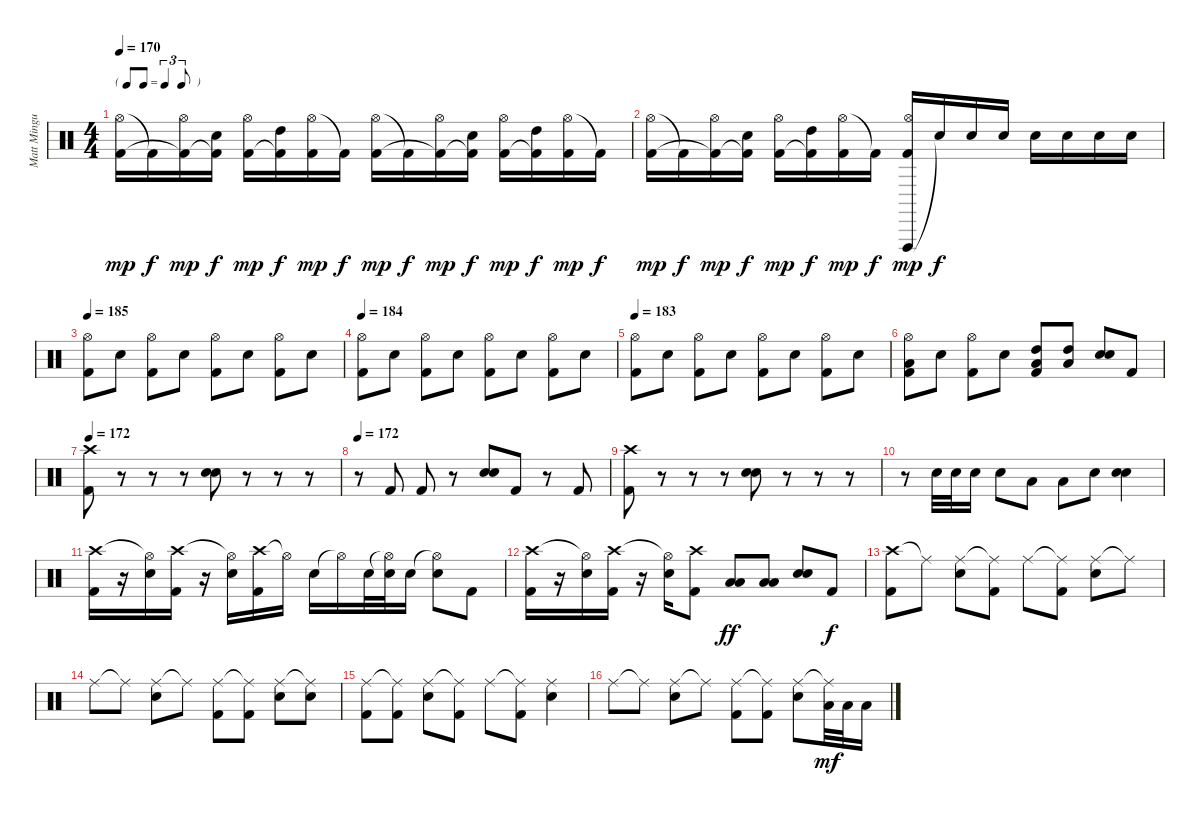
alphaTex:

\track ("Matt Mingus" "Matt Mingu") {instrument percussion}
\staff {score}
\articulation defaults
\ts (4 4)
\tf triplet8th
\tempo 170
\clef neutral
\ks c
("Hi-Hat (open)" "Kick (hit) 2").16{dy mp} "Kick (hit) 2"{t}.16{dy f} ("Hi-Hat (open)" "Kick (hit) 2"{t}).16{dy mp} ("Electric Snare (hit)" "Kick (hit) 2"{t}).16{dy f} ("Hi-Hat (open)" "Kick (hit) 2").16{dy mp} ("High Tom (hit)" "Kick (hit) 2"{t}).16{dy f} ("Hi-Hat (open)" "Kick (hit) 2").16{dy mp} "Kick (hit) 2"{t}.16{dy f} ("Hi-Hat (open)" "Kick (hit) 2").16{dy mp} "Kick (hit) 2"{t}.16{dy f} ("Hi-Hat (open)" "Kick (hit) 2"{t}).16{dy mp} ("Electric Snare (hit)" "Kick (hit) 2"{t}).16{dy f} ("Hi-Hat (open)" "Kick (hit) 2").16{dy mp} ("High Tom (hit)" "Kick (hit) 2"{t}).16{dy f} ("Hi-Hat (open)" "Kick (hit) 2").16{dy mp} "Kick (hit) 2"{t}.16{dy f} |
("Hi-Hat (open)" "Kick (hit) 2").16{dy mp} "Kick (hit) 2"{t}.16{dy f} ("Hi-Hat (open)" "Kick (hit) 2"{t}).16{dy mp} ("Electric Snare (hit)" "Kick (hit) 2"{t}).16{dy f} ("Hi-Hat (open)" "Kick (hit) 2").16{dy mp} ("High Tom (hit)" "Kick (hit) 2"{t}).16{dy f} ("Hi-Hat (open)" "Kick (hit) 2").16{dy mp} "Kick (hit) 2"{t}.16{dy f} ("Vibraslap (hit)" "Hi-Hat (open)" "Kick (hit) 2").16{dy mp} "Snare (hit)"{t}.16{dy f} "Electric Snare (hit)".16 "Electric Snare (hit)".16 "Electric Snare (hit)".16 "Electric Snare (hit)".16 "Electric Snare (hit)".16 "Electric Snare (hit)".16 |
\tempo 185
("Hi-Hat (open)" "Kick (hit) 2").8 "Electric Snare (hit)".8 ("Hi-Hat (open)" "Kick (hit) 2").8 "Electric Snare (hit)".8 ("Hi-Hat (open)" "Kick (hit) 2").8 "Electric Snare (hit)".8 ("Hi-Hat (open)" "Kick (hit) 2").8 "Electric Snare (hit)".8 |
\tempo 184
("Hi-Hat (open)" "Kick (hit) 2").8 "Electric Snare (hit)".8 ("Hi-Hat (open)" "Kick (hit) 2").8 "Electric Snare (hit)".8 ("Hi-Hat (open)" "Kick (hit) 2").8 "Electric Snare (hit)".8 ("Hi-Hat (open)" "Kick (hit) 2").8 "Electric Snare (hit)".8 |
\tempo 183
("Hi-Hat (open)" "Kick (hit) 2").8 "Electric Snare (hit)".8 ("Hi-Hat (open)" "Kick (hit) 2").8 "Electric Snare (hit)".8 ("Hi-Hat (open)" "Kick (hit) 2").8 "Electric Snare (hit)".8 ("Hi-Hat (open)" "Kick (hit) 2").8 "Electric Snare (hit)".8 |
("Hi-Hat (open)" "Low Floor Tom (hit)" "Kick (hit) 2").8 "Electric Snare (hit)".8 ("Hi-Hat (open)" "Kick (hit) 2").8 "Electric Snare (hit)".8 ("Low Floor Tom (hit)" "High Tom (hit)" "Kick (hit) 2").8 ("Low Floor Tom (hit)" "High Tom (hit)").8 ("Snare (hit) 2" "Electric Snare (hit)").8 "Kick (hit) 2".8 |
\tempo 172
("Crash high (hit)" "Kick (hit) 2").8 r.8 r.8 r.8 ("Snare (hit) 2" "Electric Snare (hit)").8 r.8 r.8 r.8 |
\tempo 172
r.8 "Kick (hit) 2".8 "Kick (hit) 2".8 r.8 ("Snare (hit) 2" "Electric Snare (hit)").8 "Kick (hit) 2".8 r.8 "Kick (hit) 2".8 |
("Crash high (hit)" "Kick (hit) 2").8 r.8 r.8 r.8 ("Snare (hit) 2" "Electric Snare (hit)").8 r.8 r.8 r.8 |
r.8 "Electric Snare (hit)".32 "Electric Snare (hit)".32 "Electric Snare (hit)".16 "Electric Snare (hit)".8 "Low Floor Tom (hit)".8 "Low Floor Tom (hit)".8 "Electric Snare (hit)".8 ("Snare (hit) 2" "Electric Snare (hit)").4 |
("Crash high (hit)" "Kick (hit) 2").16 r.16 ("Hi-Hat (open)"{t} "Electric Snare (hit)").16 ("Crash high (hit)" "Kick (hit) 2").16 r.16 ("Hi-Hat (open)"{t} "Electric Snare (hit)").16 ("Crash high (hit)" "Kick (hit) 2").16 "Hi-Hat (open)"{t}.16 "Electric Snare (hit)".16 "Hi-Hat (open)"{t}.16 "Electric Snare (hit)".32 ("Hi-Hat (open)"{t} "Electric Snare (hit)").32 "Electric Snare (hit)".16 ("Hi-Hat (open)"{t} "Electric Snare (hit)").8 "Kick (hit) 2".8 |
("Crash high (hit)" "Kick (hit) 2").16 r.16 ("Hi-Hat (open)"{t} "Electric Snare (hit)").16 ("Crash high (hit)" "Kick (hit) 2").16 r.16 ("Hi-Hat (open)"{t} "Electric Snare (hit)").16 ("Crash high (hit)" "Kick (hit) 2").8 ("Low Floor Tom (hit)" "Low Floor Tom (hit)").8{dy ff} ("Low Floor Tom (hit)" "Low Floor Tom (hit)").8 ("Snare (hit) 2" "Electric Snare (hit)").8 "Kick (hit) 2".8{dy f} |
("Crash high (hit)" "Kick (hit) 2").8 "Ride (middle)"{t}.8 ("Ride (middle)" "Electric Snare (hit)").8 ("Ride (middle)"{t} "Kick (hit) 2").8 "Ride (middle)".8 ("Ride (middle)"{t} "Kick (hit) 2").8 ("Ride (middle)" "Electric Snare (hit)").8 "Ride (middle)"{t}.8 |
"Ride (middle)".8 "Ride (middle)"{t}.8 ("Ride (middle)" "Electric Snare (hit)").8 "Ride (middle)"{t}.8 ("Ride (middle)" "Kick (hit) 2").8 ("Ride (middle)"{t} "Kick (hit) 2").8 ("Ride (middle)" "Electric Snare (hit)").8 ("Ride (middle)"{t} "Electric Snare (hit)").8 |
("Ride (middle)" "Kick (hit) 2").8 ("Ride (middle)"{t} "Kick (hit) 2").8 ("Ride (middle)" "Electric Snare (hit)").8 ("Ride (middle)"{t} "Kick (hit) 2").8 "Ride (middle)".8 ("Ride (middle)"{t} "Kick (hit) 2").8 ("Ride (middle)" "Electric Snare (hit)").4 |
"Ride (middle)".8 "Ride (middle)"{t}.8 ("Ride (middle)" "Electric Snare (hit)").8 "Ride (middle)"{t}.8 ("Ride (middle)" "Kick (hit) 2").8 ("Ride (middle)"{t} "Kick (hit) 2").8 ("Ride (middle)" "Electric Snare (hit)").8 ("Ride (middle)"{t} "Low Floor Tom (hit)").32{dy mf} "Low Floor Tom (hit)".32 "Low Floor Tom (hit)".16
